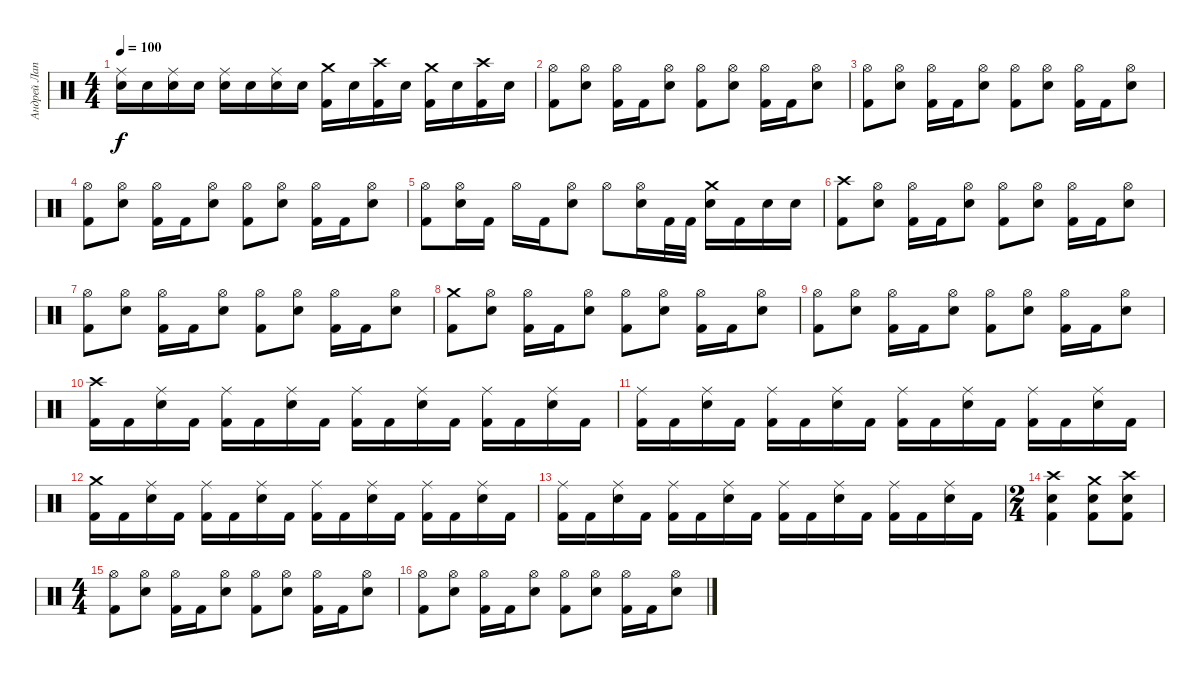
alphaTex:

\track ("Андрей Лаптев" "Андрей Лап") {instrument percussion}
\staff {score}
\articulation defaults
\ts (4 4)
\tempo 100
\clef neutral
\ks c
("Ride (middle)" "Snare (hit) 2").16{dy f} "Snare (hit) 2".16 ("Ride (middle)" "Snare (hit) 2").16 "Snare (hit) 2".16 ("Ride (middle)" "Snare (hit) 2").16 "Snare (hit) 2".16 ("Ride (middle)" "Snare (hit) 2").16 "Snare (hit) 2".16 ("Crash medium (hit)" "Kick (hit) 2").16 "Snare (hit) 2".16 ("Crash high (hit)" "Kick (hit) 2").16 "Snare (hit) 2".16 ("Crash medium (hit)" "Kick (hit) 2").16 "Snare (hit) 2".16 ("Crash high (hit)" "Kick (hit) 2").16 "Snare (hit) 2".16 |
("Hi-Hat (open)" "Kick (hit) 2").8 ("Hi-Hat (open)" "Snare (hit) 2").8 ("Hi-Hat (open)" "Kick (hit) 2").16 "Kick (hit) 2".16 ("Hi-Hat (open)" "Snare (hit) 2").8 ("Hi-Hat (open)" "Kick (hit) 2").8 ("Hi-Hat (open)" "Snare (hit) 2").8 ("Hi-Hat (open)" "Kick (hit) 2").16 "Kick (hit) 2".16 ("Hi-Hat (open)" "Snare (hit) 2").8 |
("Hi-Hat (open)" "Kick (hit) 2").8 ("Hi-Hat (open)" "Snare (hit) 2").8 ("Hi-Hat (open)" "Kick (hit) 2").16 "Kick (hit) 2".16 ("Hi-Hat (open)" "Snare (hit) 2").8 ("Hi-Hat (open)" "Kick (hit) 2").8 ("Hi-Hat (open)" "Snare (hit) 2").8 ("Hi-Hat (open)" "Kick (hit) 2").16 "Kick (hit) 2".16 ("Hi-Hat (open)" "Snare (hit) 2").8 |
("Hi-Hat (open)" "Kick (hit) 2").8 ("Hi-Hat (open)" "Snare (hit) 2").8 ("Hi-Hat (open)" "Kick (hit) 2").16 "Kick (hit) 2".16 ("Hi-Hat (open)" "Snare (hit) 2").8 ("Hi-Hat (open)" "Kick (hit) 2").8 ("Hi-Hat (open)" "Snare (hit) 2").8 ("Hi-Hat (open)" "Kick (hit) 2").16 "Kick (hit) 2".16 ("Hi-Hat (open)" "Snare (hit) 2").8 |
("Hi-Hat (open)" "Kick (hit) 2").8 ("Hi-Hat (open)" "Snare (hit) 2").16 "Kick (hit) 2".16 "Hi-Hat (open)".16 "Kick (hit) 2".16 ("Hi-Hat (open)" "Snare (hit) 2").8 "Hi-Hat (open)".8 ("Hi-Hat (open)" "Snare (hit) 2").16 "Kick (hit) 2".32 "Kick (hit) 2".32 ("Crash medium (hit)" "Snare (hit) 2").16 "Kick (hit) 2".16 "Snare (hit) 2".16 "Snare (hit) 2".16 |
("Crash high (hit)" "Kick (hit) 2").8 ("Hi-Hat (open)" "Snare (hit) 2").8 ("Hi-Hat (open)" "Kick (hit) 2").16 "Kick (hit) 2".16 ("Hi-Hat (open)" "Snare (hit) 2").8 ("Hi-Hat (open)" "Kick (hit) 2").8 ("Hi-Hat (open)" "Snare (hit) 2").8 ("Hi-Hat (open)" "Kick (hit) 2").16 "Kick (hit) 2".16 ("Hi-Hat (open)" "Snare (hit) 2").8 |
("Hi-Hat (open)" "Kick (hit) 2").8 ("Hi-Hat (open)" "Snare (hit) 2").8 ("Hi-Hat (open)" "Kick (hit) 2").16 "Kick (hit) 2".16 ("Hi-Hat (open)" "Snare (hit) 2").8 ("Hi-Hat (open)" "Kick (hit) 2").8 ("Hi-Hat (open)" "Snare (hit) 2").8 ("Hi-Hat (open)" "Kick (hit) 2").16 "Kick (hit) 2".16 ("Hi-Hat (open)" "Snare (hit) 2").8 |
("Crash medium (hit)" "Kick (hit) 2").8 ("Hi-Hat (open)" "Snare (hit) 2").8 ("Hi-Hat (open)" "Kick (hit) 2").16 "Kick (hit) 2".16 ("Hi-Hat (open)" "Snare (hit) 2").8 ("Hi-Hat (open)" "Kick (hit) 2").8 ("Hi-Hat (open)" "Snare (hit) 2").8 ("Hi-Hat (open)" "Kick (hit) 2").16 "Kick (hit) 2".16 ("Hi-Hat (open)" "Snare (hit) 2").8 |
("Hi-Hat (open)" "Kick (hit) 2").8 ("Hi-Hat (open)" "Snare (hit) 2").8 ("Hi-Hat (open)" "Kick (hit) 2").16 "Kick (hit) 2".16 ("Hi-Hat (open)" "Snare (hit) 2").8 ("Hi-Hat (open)" "Kick (hit) 2").8 ("Hi-Hat (open)" "Snare (hit) 2").8 ("Hi-Hat (open)" "Kick (hit) 2").16 "Kick (hit) 2".16 ("Hi-Hat (open)" "Snare (hit) 2").8 |
("Crash high (hit)" "Kick (hit) 2").16 "Kick (hit) 2".16 ("Ride (middle)" "Snare (hit) 2").16 "Kick (hit) 2".16 ("Ride (middle)" "Kick (hit) 2").16 "Kick (hit) 2".16 ("Ride (middle)" "Snare (hit) 2").16 "Kick (hit) 2".16 ("Ride (middle)" "Kick (hit) 2").16 "Kick (hit) 2".16 ("Ride (middle)" "Snare (hit) 2").16 "Kick (hit) 2".16 ("Ride (middle)" "Kick (hit) 2").16 "Kick (hit) 2".16 ("Ride (middle)" "Snare (hit) 2").16 "Kick (hit) 2".16 |
("Ride (middle)" "Kick (hit) 2").16 "Kick (hit) 2".16 ("Ride (middle)" "Snare (hit) 2").16 "Kick (hit) 2".16 ("Ride (middle)" "Kick (hit) 2").16 "Kick (hit) 2".16 ("Ride (middle)" "Snare (hit) 2").16 "Kick (hit) 2".16 ("Ride (middle)" "Kick (hit) 2").16 "Kick (hit) 2".16 ("Ride (middle)" "Snare (hit) 2").16 "Kick (hit) 2".16 ("Ride (middle)" "Kick (hit) 2").16 "Kick (hit) 2".16 ("Ride (middle)" "Snare (hit) 2").16 "Kick (hit) 2".16 |
("Crash medium (hit)" "Kick (hit) 2").16 "Kick (hit) 2".16 ("Ride (middle)" "Snare (hit) 2").16 "Kick (hit) 2".16 ("Ride (middle)" "Kick (hit) 2").16 "Kick (hit) 2".16 ("Ride (middle)" "Snare (hit) 2").16 "Kick (hit) 2".16 ("Ride (middle)" "Kick (hit) 2").16 "Kick (hit) 2".16 ("Ride (middle)" "Snare (hit) 2").16 "Kick (hit) 2".16 ("Ride (middle)" "Kick (hit) 2").16 "Kick (hit) 2".16 ("Ride (middle)" "Snare (hit) 2").16 "Kick (hit) 2".16 |
("Ride (middle)" "Kick (hit) 2").16 "Kick (hit) 2".16 ("Ride (middle)" "Snare (hit) 2").16 "Kick (hit) 2".16 ("Ride (middle)" "Kick (hit) 2").16 "Kick (hit) 2".16 ("Ride (middle)" "Snare (hit) 2").16 "Kick (hit) 2".16 ("Ride (middle)" "Kick (hit) 2").16 "Kick (hit) 2".16 ("Ride (middle)" "Snare (hit) 2").16 "Kick (hit) 2".16 ("Ride (middle)" "Kick (hit) 2").16 "Kick (hit) 2".16 ("Ride (middle)" "Snare (hit) 2").16 "Kick (hit) 2".16 |
\ts (2 4)
("Crash high (hit)" "Snare (hit) 2" "Kick (hit) 2").4 ("Crash medium (hit)" "Snare (hit) 2" "Kick (hit) 2").8 ("Crash high (hit)" "Snare (hit) 2" "Kick (hit) 2").8 |
\ts (4 4)
("Hi-Hat (open)" "Kick (hit) 2").8 ("Hi-Hat (open)" "Snare (hit) 2").8 ("Hi-Hat (open)" "Kick (hit) 2").16 "Kick (hit) 2".16 ("Hi-Hat (open)" "Snare (hit) 2").8 ("Hi-Hat (open)" "Kick (hit) 2").8 ("Hi-Hat (open)" "Snare (hit) 2").8 ("Hi-Hat (open)" "Kick (hit) 2").16 "Kick (hit) 2".16 ("Hi-Hat (open)" "Snare (hit) 2").8 |
("Hi-Hat (open)" "Kick (hit) 2").8 ("Hi-Hat (open)" "Snare (hit) 2").8 ("Hi-Hat (open)" "Kick (hit) 2").16 "Kick (hit) 2".16 ("Hi-Hat (open)" "Snare (hit) 2").8 ("Hi-Hat (open)" "Kick (hit) 2").8 ("Hi-Hat (open)" "Snare (hit) 2").8 ("Hi-Hat (open)" "Kick (hit) 2").16 "Kick (hit) 2".16 ("Hi-Hat (open)" "Snare (hit) 2").8
